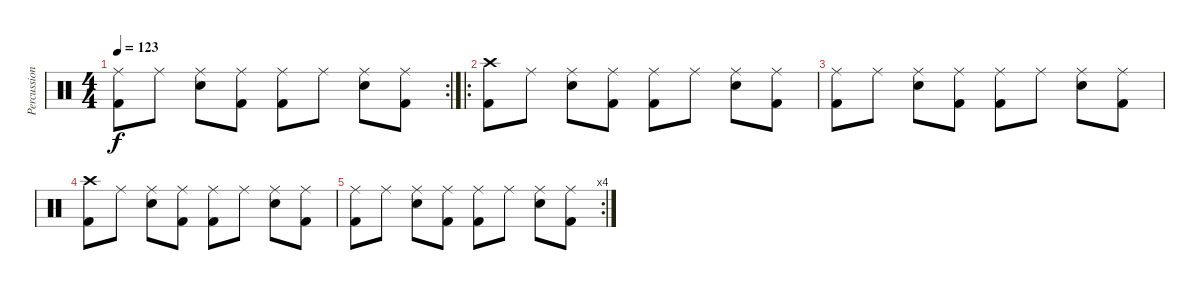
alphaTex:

\track ("Percussion" "Percussion") {instrument percussion}
\staff {score}
\articulation defaults
\rc 2
\ts (4 4)
\tempo 123
\clef neutral
\ks c
("Ride (middle)" "Kick (hit) 2").8{dy f} "Ride (middle)".8 ("Ride (middle)" "Electric Snare (hit)").8 ("Ride (middle)" "Kick (hit) 2").8 ("Ride (middle)" "Kick (hit) 2").8 "Ride (middle)".8 ("Ride (middle)" "Electric Snare (hit)").8 ("Ride (middle)" "Kick (hit) 2").8 |
\ro
("Crash high (hit)" "Kick (hit) 2").8 "Ride (middle)".8 ("Ride (middle)" "Electric Snare (hit)").8 ("Ride (middle)" "Kick (hit) 2").8 ("Ride (middle)" "Kick (hit) 2").8 "Ride (middle)".8 ("Ride (middle)" "Electric Snare (hit)").8 ("Ride (middle)" "Kick (hit) 2").8 |
("Ride (middle)" "Kick (hit) 2").8 "Ride (middle)".8 ("Ride (middle)" "Electric Snare (hit)").8 ("Ride (middle)" "Kick (hit) 2").8 ("Ride (middle)" "Kick (hit) 2").8 "Ride (middle)".8 ("Ride (middle)" "Electric Snare (hit)").8 ("Ride (middle)" "Kick (hit) 2").8 |
("Crash high (hit)" "Kick (hit) 2").8 "Ride (middle)".8 ("Ride (middle)" "Electric Snare (hit)").8 ("Ride (middle)" "Kick (hit) 2").8 ("Ride (middle)" "Kick (hit) 2").8 "Ride (middle)".8 ("Ride (middle)" "Electric Snare (hit)").8 ("Ride (middle)" "Kick (hit) 2").8 |
\rc 4
("Ride (middle)" "Kick (hit) 2").8 "Ride (middle)".8 ("Ride (middle)" "Electric Snare (hit)").8 ("Ride (middle)" "Kick (hit) 2").8 ("Ride (middle)" "Kick (hit) 2").8 "Ride (middle)".8 ("Ride (middle)" "Electric Snare (hit)").8 ("Ride (middle)" "Kick (hit) 2").8
